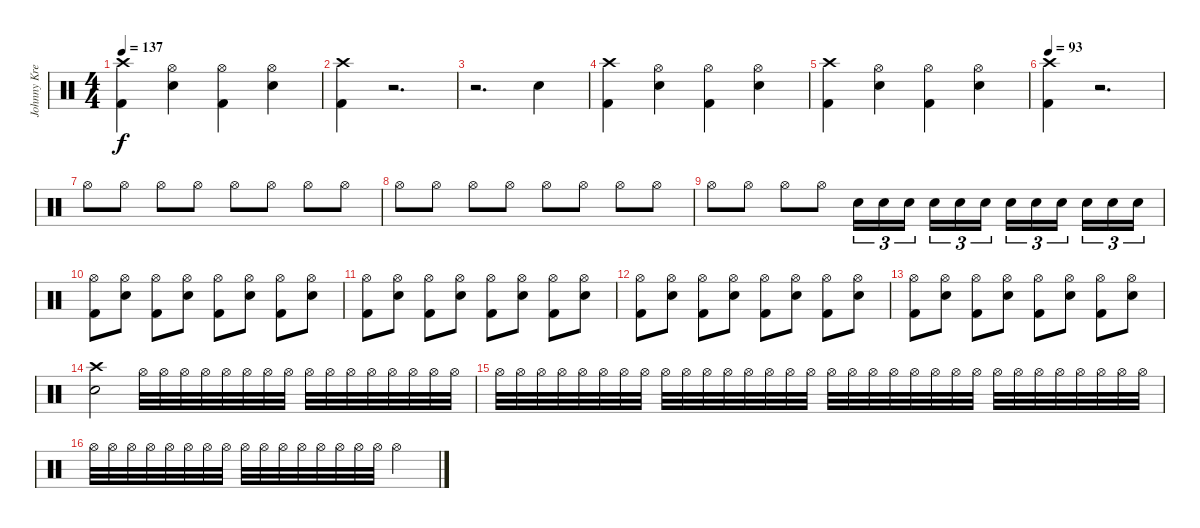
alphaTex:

\track ("Johnny Kreis" "Johnny Kre") {instrument percussion}
\staff {score}
\articulation defaults
\ts (4 4)
\tempo 137
\clef neutral
\ks c
("Crash high (hit)" "Kick (hit) 2").4{dy f} ("Hi-Hat (open)" "Snare (hit) 2").4 ("Hi-Hat (open)" "Kick (hit) 2").4 ("Hi-Hat (open)" "Snare (hit) 2").4 |
("Crash high (hit)" "Kick (hit) 2").4 r.2{d} |
r.2{d} "Snare (hit) 2".4 |
("Crash high (hit)" "Kick (hit) 2").4 ("Hi-Hat (open)" "Snare (hit) 2").4 ("Hi-Hat (open)" "Kick (hit) 2").4 ("Hi-Hat (open)" "Snare (hit) 2").4 |
("Crash high (hit)" "Kick (hit) 2").4 ("Hi-Hat (open)" "Snare (hit) 2").4 ("Hi-Hat (open)" "Kick (hit) 2").4 ("Hi-Hat (open)" "Snare (hit) 2").4 |
\tempo 80
\tempo 93
("Crash high (hit)" "Kick (hit) 2").4 r.2{d} |
"Hi-Hat (open)".8 "Hi-Hat (open)".8 "Hi-Hat (open)".8 "Hi-Hat (open)".8 "Hi-Hat (open)".8 "Hi-Hat (open)".8 "Hi-Hat (open)".8 "Hi-Hat (open)".8 |
"Hi-Hat (open)".8 "Hi-Hat (open)".8 "Hi-Hat (open)".8 "Hi-Hat (open)".8 "Hi-Hat (open)".8 "Hi-Hat (open)".8 "Hi-Hat (open)".8 "Hi-Hat (open)".8 |
"Hi-Hat (open)".8 "Hi-Hat (open)".8 "Hi-Hat (open)".8 "Hi-Hat (open)".8 "Snare (hit) 2".16{tu (3 2)} "Snare (hit) 2".16{tu (3 2)} "Snare (hit) 2".16{tu (3 2) beam splitsecondary} "Snare (hit) 2".16{tu (3 2)} "Snare (hit) 2".16{tu (3 2)} "Snare (hit) 2".16{tu (3 2)} "Snare (hit) 2".16{tu (3 2)} "Snare (hit) 2".16{tu (3 2)} "Snare (hit) 2".16{tu (3 2) beam splitsecondary} "Snare (hit) 2".16{tu (3 2)} "Snare (hit) 2".16{tu (3 2)} "Snare (hit) 2".16{tu (3 2)} |
("Hi-Hat (open)" "Kick (hit) 2").8 ("Hi-Hat (open)" "Snare (hit) 2").8 ("Hi-Hat (open)" "Kick (hit) 2").8 ("Hi-Hat (open)" "Snare (hit) 2").8 ("Hi-Hat (open)" "Kick (hit) 2").8 ("Hi-Hat (open)" "Snare (hit) 2").8 ("Hi-Hat (open)" "Kick (hit) 2").8 ("Hi-Hat (open)" "Snare (hit) 2").8 |
("Hi-Hat (open)" "Kick (hit) 2").8 ("Hi-Hat (open)" "Snare (hit) 2").8 ("Hi-Hat (open)" "Kick (hit) 2").8 ("Hi-Hat (open)" "Snare (hit) 2").8 ("Hi-Hat (open)" "Kick (hit) 2").8 ("Hi-Hat (open)" "Snare (hit) 2").8 ("Hi-Hat (open)" "Kick (hit) 2").8 ("Hi-Hat (open)" "Snare (hit) 2").8 |
("Hi-Hat (open)" "Kick (hit) 2").8 ("Hi-Hat (open)" "Snare (hit) 2").8 ("Hi-Hat (open)" "Kick (hit) 2").8 ("Hi-Hat (open)" "Snare (hit) 2").8 ("Hi-Hat (open)" "Kick (hit) 2").8 ("Hi-Hat (open)" "Snare (hit) 2").8 ("Hi-Hat (open)" "Kick (hit) 2").8 ("Hi-Hat (open)" "Snare (hit) 2").8 |
("Hi-Hat (open)" "Kick (hit) 2").8 ("Hi-Hat (open)" "Snare (hit) 2").8 ("Hi-Hat (open)" "Kick (hit) 2").8 ("Hi-Hat (open)" "Snare (hit) 2").8 ("Hi-Hat (open)" "Kick (hit) 2").8 ("Hi-Hat (open)" "Snare (hit) 2").8 ("Hi-Hat (open)" "Kick (hit) 2").8 ("Hi-Hat (open)" "Snare (hit) 2").8 |
("Crash high (hit)" "Snare (hit) 2").2 "Hi-Hat (open)".32 "Hi-Hat (open)".32 "Hi-Hat (open)".32 "Hi-Hat (open)".32 "Hi-Hat (open)".32 "Hi-Hat (open)".32 "Hi-Hat (open)".32 "Hi-Hat (open)".32 "Hi-Hat (open)".32 "Hi-Hat (open)".32 "Hi-Hat (open)".32 "Hi-Hat (open)".32 "Hi-Hat (open)".32 "Hi-Hat (open)".32 "Hi-Hat (open)".32 "Hi-Hat (open)".32 |
"Hi-Hat (open)".32 "Hi-Hat (open)".32 "Hi-Hat (open)".32 "Hi-Hat (open)".32 "Hi-Hat (open)".32 "Hi-Hat (open)".32 "Hi-Hat (open)".32 "Hi-Hat (open)".32 "Hi-Hat (open)".32 "Hi-Hat (open)".32 "Hi-Hat (open)".32 "Hi-Hat (open)".32 "Hi-Hat (open)".32 "Hi-Hat (open)".32 "Hi-Hat (open)".32 "Hi-Hat (open)".32 "Hi-Hat (open)".32 "Hi-Hat (open)".32 "Hi-Hat (open)".32 "Hi-Hat (open)".32 "Hi-Hat (open)".32 "Hi-Hat (open)".32 "Hi-Hat (open)".32 "Hi-Hat (open)".32 "Hi-Hat (open)".32 "Hi-Hat (open)".32 "Hi-Hat (open)".32 "Hi-Hat (open)".32 "Hi-Hat (open)".32 "Hi-Hat (open)".32 "Hi-Hat (open)".32 "Hi-Hat (open)".32 |
"Hi-Hat (open)".32 "Hi-Hat (open)".32 "Hi-Hat (open)".32 "Hi-Hat (open)".32 "Hi-Hat (open)".32 "Hi-Hat (open)".32 "Hi-Hat (open)".32 "Hi-Hat (open)".32 "Hi-Hat (open)".32 "Hi-Hat (open)".32 "Hi-Hat (open)".32 "Hi-Hat (open)".32 "Hi-Hat (open)".32 "Hi-Hat (open)".32 "Hi-Hat (open)".32 "Hi-Hat (open)".32 "Hi-Hat (open)".2
